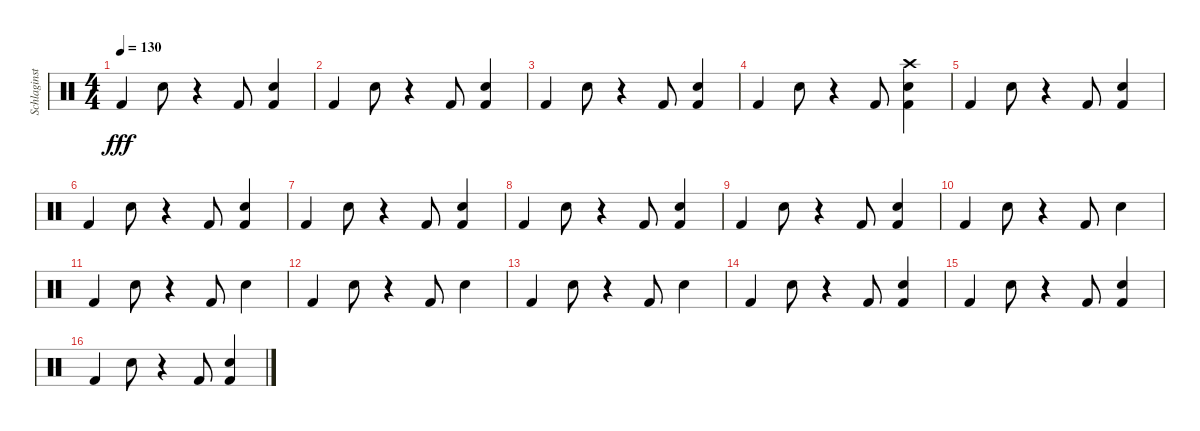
\track ("Schlaginstrumente - Auswahl" "Schlaginst") {instrument percussion}
\staff {score}
\articulation defaults
\ts (4 4)
\tempo 130
\clef neutral
\ks c "Kick (hit) 2".4{dy fff} "Snare (hit) 2".8
r.4 "Kick (hit) 2".8 ("Snare (hit) 2" "Kick (hit) 2").4 |
"Kick (hit) 2".4 "Snare (hit) 2".8 r.4 "Kick (hit) 2".8 ("Snare (hit) 2" "Kick (hit) 2").4 |
"Kick (hit) 2".4 "Snare (hit) 2".8 r.4 "Kick (hit) 2".8 ("Snare (hit) 2" "Kick (hit) 2").4 |
"Kick (hit) 2".4 "Snare (hit) 2".8 r.4 "Kick (hit) 2".8 ("Crash high (hit)" "Snare (hit) 2" "Kick (hit) 2").4 |
"Kick (hit) 2".4 "Snare (hit) 2".8 r.4 "Kick (hit) 2".8 ("Snare (hit) 2" "Kick (hit) 2").4 |
"Kick (hit) 2".4 "Snare (hit) 2".8 r.4 "Kick (hit) 2".8 ("Snare (hit) 2" "Kick (hit) 2").4 |
"Kick (hit) 2".4 "Snare (hit) 2".8 r.4 "Kick (hit) 2".8 ("Snare (hit) 2" "Kick (hit) 2").4 |
"Kick (hit) 2".4 "Snare (hit) 2".8 r.4 "Kick (hit) 2".8 ("Snare (hit) 2" "Kick (hit) 2").4 |
"Kick (hit) 2".4 "Snare (hit) 2".8 r.4 "Kick (hit) 2".8 ("Snare (hit) 2" "Kick (hit) 2").4 |
"Kick (hit) 2".4 "Snare (hit) 2".8 r.4 "Kick (hit) 2".8 "Snare (hit) 2".4 |
"Kick (hit) 2".4 "Snare (hit) 2".8 r.4 "Kick (hit) 2".8 "Snare (hit) 2".4 |
"Kick (hit) 2".4 "Snare (hit) 2".8 r.4 "Kick (hit) 2".8 "Snare (hit) 2".4 |
"Kick (hit) 2".4 "Snare (hit) 2".8 r.4 "Kick (hit) 2".8 "Snare (hit) 2".4 |
"Kick (hit) 2".4 "Snare (hit) 2".8 r.4 "Kick (hit) 2".8 ("Snare (hit) 2" "Kick (hit) 2").4 |
"Kick (hit) 2".4 "Snare (hit) 2".8 r.4 "Kick (hit) 2".8 ("Snare (hit) 2" "Kick (hit) 2").4 |
"Kick (hit) 2".4 "Snare (hit) 2".8 r.4 "Kick (hit) 2".8 ("Snare (hit) 2" "Kick (hit) 2").4
